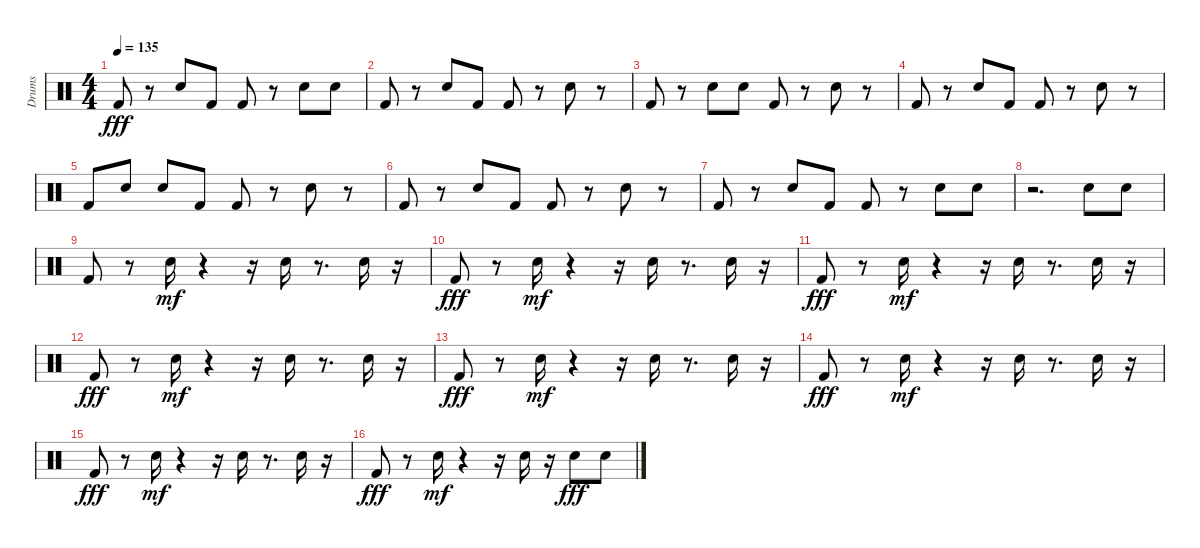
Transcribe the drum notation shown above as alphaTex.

\track ("Drums" "Drums") {instrument percussion}
\staff {score}
\articulation defaults
\ts (4 4)
\tempo 135
\clef neutral
\ks c "Kick (hit) 2".8{dy fff}
r.8 "Snare (hit) 2".8 "Kick (hit) 2".8 "Kick (hit) 2".8 r.8 "Snare (hit) 2".8 "Snare (hit) 2".8 |
"Kick (hit) 2".8 r.8 "Snare (hit) 2".8 "Kick (hit) 2".8 "Kick (hit) 2".8 r.8 "Snare (hit) 2".8 r.8 |
"Kick (hit) 2".8 r.8 "Snare (hit) 2".8 "Snare (hit) 2".8 "Kick (hit) 2".8 r.8 "Snare (hit) 2".8 r.8 |
"Kick (hit) 2".8 r.8 "Snare (hit) 2".8 "Kick (hit) 2".8 "Kick (hit) 2".8 r.8 "Snare (hit) 2".8 r.8 |
"Kick (hit) 2".8 "Snare (hit) 2".8 "Snare (hit) 2".8 "Kick (hit) 2".8 "Kick (hit) 2".8 r.8 "Snare (hit) 2".8 r.8 |
"Kick (hit) 2".8 r.8 "Snare (hit) 2".8 "Kick (hit) 2".8 "Kick (hit) 2".8 r.8 "Snare (hit) 2".8 r.8 |
"Kick (hit) 2".8 r.8 "Snare (hit) 2".8 "Kick (hit) 2".8 "Kick (hit) 2".8 r.8 "Snare (hit) 2".8 "Snare (hit) 2".8 |
r.2{d} "Snare (hit) 2".8 "Snare (hit) 2".8 |
"Kick (hit) 2".8 r.8 "Electric Snare (hit)".16{dy mf} r.4 r.16 "Electric Snare (hit)".16 r.8{d} "Electric Snare (hit)".16 r.16 |
"Kick (hit) 2".8{dy fff} r.8 "Electric Snare (hit)".16{dy mf} r.4 r.16 "Electric Snare (hit)".16 r.8{d} "Electric Snare (hit)".16 r.16 |
"Kick (hit) 2".8{dy fff} r.8 "Electric Snare (hit)".16{dy mf} r.4 r.16 "Electric Snare (hit)".16 r.8{d} "Electric Snare (hit)".16 r.16 |
"Kick (hit) 2".8{dy fff} r.8 "Electric Snare (hit)".16{dy mf} r.4 r.16 "Electric Snare (hit)".16 r.8{d} "Electric Snare (hit)".16 r.16 |
"Kick (hit) 2".8{dy fff} r.8 "Electric Snare (hit)".16{dy mf} r.4 r.16 "Electric Snare (hit)".16 r.8{d} "Electric Snare (hit)".16 r.16 |
"Kick (hit) 2".8{dy fff} r.8 "Electric Snare (hit)".16{dy mf} r.4 r.16 "Electric Snare (hit)".16 r.8{d} "Electric Snare (hit)".16 r.16 |
"Kick (hit) 2".8{dy fff} r.8 "Electric Snare (hit)".16{dy mf} r.4 r.16 "Electric Snare (hit)".16 r.8{d} "Electric Snare (hit)".16 r.16 |
"Kick (hit) 2".8{dy fff} r.8 "Electric Snare (hit)".16{dy mf} r.4 r.16 "Electric Snare (hit)".16 r.16 "Electric Snare (hit)".8{dy fff} "Snare (hit) 2".8
